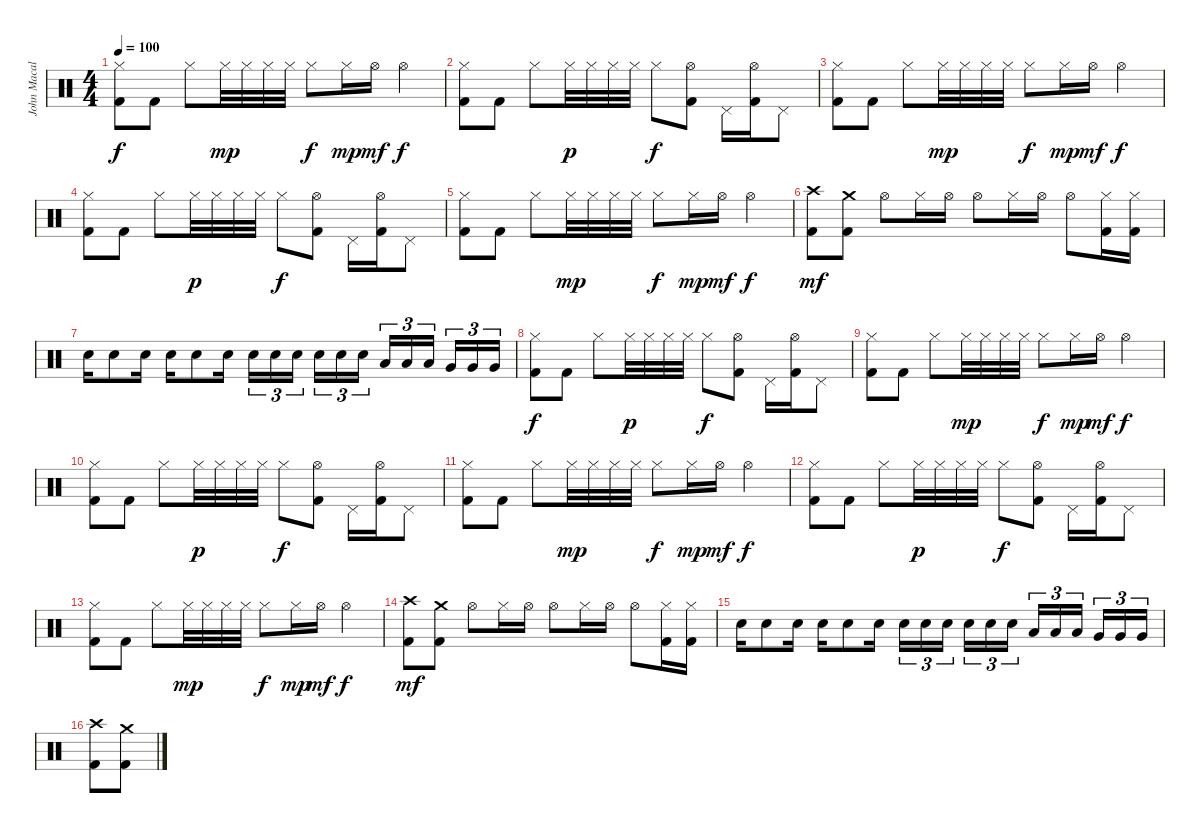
\track ("John Macaluso" "John Macal") {instrument percussion}
\staff {score}
\articulation defaults
\ts (4 4)
\tempo 100
\clef neutral
\ks c
("Hi-Hat (closed)" "Kick (hit) 2").8{dy f} "Kick (hit) 2".8 "Hi-Hat (closed)".8 "Hi-Hat (closed)".32{dy mp} "Hi-Hat (closed)".32 "Hi-Hat (closed)".32 "Hi-Hat (closed)".32 "Hi-Hat (closed)".8{dy f} "Hi-Hat (closed)".16{dy mp} "Hi-Hat (open)".16{dy mf} "Hi-Hat (open)".4{dy f} |
("Hi-Hat (closed)" "Kick (hit) 2").8 "Kick (hit) 2".8 "Hi-Hat (closed)".8 "Hi-Hat (closed)".32{dy p} "Hi-Hat (closed)".32 "Hi-Hat (closed)".32 "Hi-Hat (closed)".32 "Hi-Hat (closed)".8{dy f} ("Hi-Hat (open)" "Kick (hit) 2").8 "Pedal Hi-Hat (hit)".16 ("Hi-Hat (open)" "Kick (hit) 2").16 "Pedal Hi-Hat (hit)".8 |
("Hi-Hat (closed)" "Kick (hit) 2").8 "Kick (hit) 2".8 "Hi-Hat (closed)".8 "Hi-Hat (closed)".32{dy mp} "Hi-Hat (closed)".32 "Hi-Hat (closed)".32 "Hi-Hat (closed)".32 "Hi-Hat (closed)".8{dy f} "Hi-Hat (closed)".16{dy mp} "Hi-Hat (open)".16{dy mf} "Hi-Hat (open)".4{dy f} |
("Hi-Hat (closed)" "Kick (hit) 2").8 "Kick (hit) 2".8 "Hi-Hat (closed)".8 "Hi-Hat (closed)".32{dy p} "Hi-Hat (closed)".32 "Hi-Hat (closed)".32 "Hi-Hat (closed)".32 "Hi-Hat (closed)".8{dy f} ("Hi-Hat (open)" "Kick (hit) 2").8 "Pedal Hi-Hat (hit)".16 ("Hi-Hat (open)" "Kick (hit) 2").16 "Pedal Hi-Hat (hit)".8 |
("Hi-Hat (closed)" "Kick (hit) 2").8 "Kick (hit) 2".8 "Hi-Hat (closed)".8 "Hi-Hat (closed)".32{dy mp} "Hi-Hat (closed)".32 "Hi-Hat (closed)".32 "Hi-Hat (closed)".32 "Hi-Hat (closed)".8{dy f} "Hi-Hat (closed)".16{dy mp} "Hi-Hat (open)".16{dy mf} "Hi-Hat (open)".4{dy f} |
("Crash high (hit)" "Kick (hit) 2").8{dy mf} ("Crash medium (hit)" "Kick (hit) 2").8 "Hi-Hat (open)".8 "Hi-Hat (closed)".16 "Hi-Hat (open)".16 "Hi-Hat (open)".8 "Hi-Hat (closed)".16 "Hi-Hat (open)".16 "Hi-Hat (open)".8 ("Hi-Hat (closed)" "Kick (hit) 2").16 ("Hi-Hat (closed)" "Kick (hit) 2").16 |
"Snare (hit) 2".16 "Snare (hit) 2".8 "Snare (hit) 2".16 "Snare (hit) 2".16 "Snare (hit) 2".8 "Snare (hit) 2".16 "Snare (hit) 2".16{tu (3 2)} "Snare (hit) 2".16{tu (3 2)} "Snare (hit) 2".16{tu (3 2) beam splitsecondary} "Snare (hit) 2".16{tu (3 2)} "Snare (hit) 2".16{tu (3 2)} "Snare (hit) 2".16{tu (3 2)} "Low Tom (hit)".16{tu (3 2)} "Low Tom (hit)".16{tu (3 2)} "Low Tom (hit)".16{tu (3 2) beam splitsecondary} "Very Low Tom (hit)".16{tu (3 2)} "Very Low Tom (hit)".16{tu (3 2)} "Very Low Tom (hit)".16{tu (3 2)} |
("Hi-Hat (closed)" "Kick (hit) 2").8{dy f} "Kick (hit) 2".8 "Hi-Hat (closed)".8 "Hi-Hat (closed)".32{dy p} "Hi-Hat (closed)".32 "Hi-Hat (closed)".32 "Hi-Hat (closed)".32 "Hi-Hat (closed)".8{dy f} ("Hi-Hat (open)" "Kick (hit) 2").8 "Pedal Hi-Hat (hit)".16 ("Hi-Hat (open)" "Kick (hit) 2").16 "Pedal Hi-Hat (hit)".8 |
("Hi-Hat (closed)" "Kick (hit) 2").8 "Kick (hit) 2".8 "Hi-Hat (closed)".8 "Hi-Hat (closed)".32{dy mp} "Hi-Hat (closed)".32 "Hi-Hat (closed)".32 "Hi-Hat (closed)".32 "Hi-Hat (closed)".8{dy f} "Hi-Hat (closed)".16{dy mp} "Hi-Hat (open)".16{dy mf} "Hi-Hat (open)".4{dy f} |
("Hi-Hat (closed)" "Kick (hit) 2").8 "Kick (hit) 2".8 "Hi-Hat (closed)".8 "Hi-Hat (closed)".32{dy p} "Hi-Hat (closed)".32 "Hi-Hat (closed)".32 "Hi-Hat (closed)".32 "Hi-Hat (closed)".8{dy f} ("Hi-Hat (open)" "Kick (hit) 2").8 "Pedal Hi-Hat (hit)".16 ("Hi-Hat (open)" "Kick (hit) 2").16 "Pedal Hi-Hat (hit)".8 |
("Hi-Hat (closed)" "Kick (hit) 2").8 "Kick (hit) 2".8 "Hi-Hat (closed)".8 "Hi-Hat (closed)".32{dy mp} "Hi-Hat (closed)".32 "Hi-Hat (closed)".32 "Hi-Hat (closed)".32 "Hi-Hat (closed)".8{dy f} "Hi-Hat (closed)".16{dy mp} "Hi-Hat (open)".16{dy mf} "Hi-Hat (open)".4{dy f} |
("Hi-Hat (closed)" "Kick (hit) 2").8 "Kick (hit) 2".8 "Hi-Hat (closed)".8 "Hi-Hat (closed)".32{dy p} "Hi-Hat (closed)".32 "Hi-Hat (closed)".32 "Hi-Hat (closed)".32 "Hi-Hat (closed)".8{dy f} ("Hi-Hat (open)" "Kick (hit) 2").8 "Pedal Hi-Hat (hit)".16 ("Hi-Hat (open)" "Kick (hit) 2").16 "Pedal Hi-Hat (hit)".8 |
("Hi-Hat (closed)" "Kick (hit) 2").8 "Kick (hit) 2".8 "Hi-Hat (closed)".8 "Hi-Hat (closed)".32{dy mp} "Hi-Hat (closed)".32 "Hi-Hat (closed)".32 "Hi-Hat (closed)".32 "Hi-Hat (closed)".8{dy f} "Hi-Hat (closed)".16{dy mp} "Hi-Hat (open)".16{dy mf} "Hi-Hat (open)".4{dy f} |
("Crash high (hit)" "Kick (hit) 2").8{dy mf} ("Crash medium (hit)" "Kick (hit) 2").8 "Hi-Hat (open)".8 "Hi-Hat (closed)".16 "Hi-Hat (open)".16 "Hi-Hat (open)".8 "Hi-Hat (closed)".16 "Hi-Hat (open)".16 "Hi-Hat (open)".8 ("Hi-Hat (closed)" "Kick (hit) 2").16 ("Hi-Hat (closed)" "Kick (hit) 2").16 |
"Snare (hit) 2".16 "Snare (hit) 2".8 "Snare (hit) 2".16 "Snare (hit) 2".16 "Snare (hit) 2".8 "Snare (hit) 2".16 "Snare (hit) 2".16{tu (3 2)} "Snare (hit) 2".16{tu (3 2)} "Snare (hit) 2".16{tu (3 2) beam splitsecondary} "Snare (hit) 2".16{tu (3 2)} "Snare (hit) 2".16{tu (3 2)} "Snare (hit) 2".16{tu (3 2)} "Low Tom (hit)".16{tu (3 2)} "Low Tom (hit)".16{tu (3 2)} "Low Tom (hit)".16{tu (3 2) beam splitsecondary} "Very Low Tom (hit)".16{tu (3 2)} "Very Low Tom (hit)".16{tu (3 2)} "Very Low Tom (hit)".16{tu (3 2)} |
("Crash high (hit)" "Kick (hit) 2").8 ("Crash medium (hit)" "Kick (hit) 2").8
